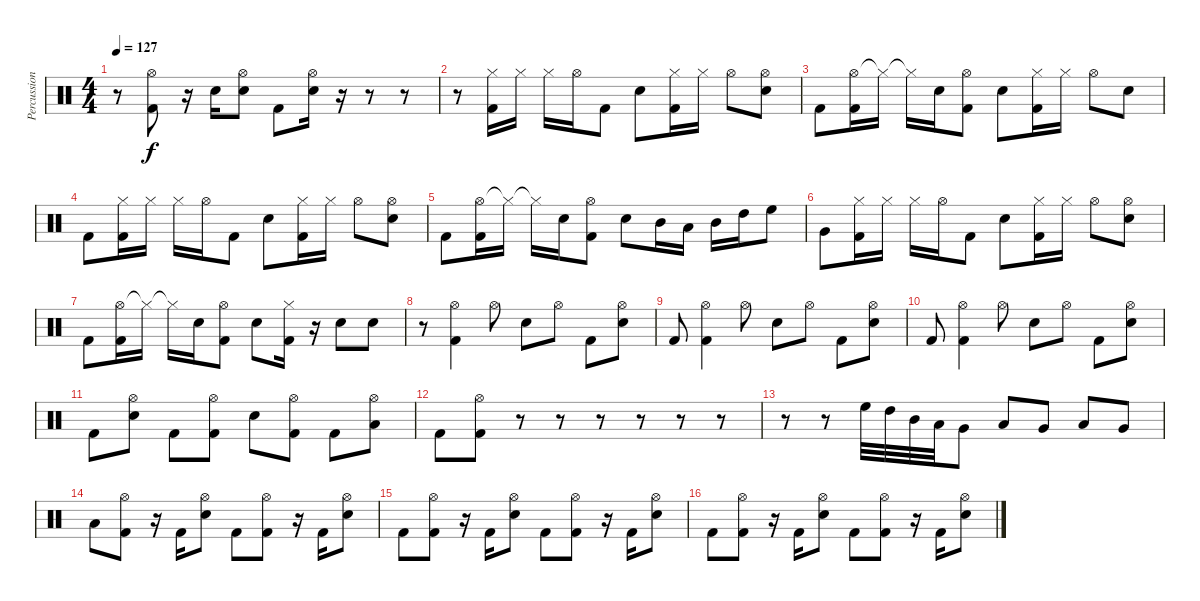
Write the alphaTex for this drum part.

\track ("Percussion" "Percussion") {instrument percussion}
\staff {score}
\articulation defaults
\ts (4 4)
\tempo 127
\clef neutral
\ks c
r.8{dy f} ("Hi-Hat (open)" "Kick (hit) 2").8 r.16 "Electric Snare (hit)".16 ("Hi-Hat (open)" "Electric Snare (hit)").8 "Kick (hit) 2".8 ("Hi-Hat (open)" "Electric Snare (hit)").16 r.16 r.8 r.8 |
r.8 ("Hi-Hat (closed)" "Kick (hit) 2").16 "Hi-Hat (closed)".16 "Hi-Hat (closed)".16 "Hi-Hat (open)".16 "Kick (hit) 2".8 "Electric Snare (hit)".8 ("Hi-Hat (closed)" "Kick (hit) 2").16 "Hi-Hat (closed)".16 "Hi-Hat (open)".8 ("Hi-Hat (open)" "Electric Snare (hit)").8 |
"Kick (hit) 2".8 ("Hi-Hat (open)" "Kick (hit) 2").16 "Hi-Hat (closed)"{t}.16 "Hi-Hat (closed)"{t}.16 "Electric Snare (hit)".16 ("Hi-Hat (open)" "Kick (hit) 2").8 "Electric Snare (hit)".8 ("Hi-Hat (closed)" "Kick (hit) 2").16 "Hi-Hat (closed)".16 "Hi-Hat (open)".8 "Electric Snare (hit)".8 |
"Kick (hit) 2".8 ("Hi-Hat (closed)" "Kick (hit) 2").16 "Hi-Hat (closed)".16 "Hi-Hat (closed)".16 "Hi-Hat (open)".16 "Kick (hit) 2".8 "Electric Snare (hit)".8 ("Hi-Hat (closed)" "Kick (hit) 2").16 "Hi-Hat (closed)".16 "Hi-Hat (open)".8 ("Hi-Hat (open)" "Electric Snare (hit)").8 |
"Kick (hit) 2".8 ("Hi-Hat (open)" "Kick (hit) 2").16 "Hi-Hat (closed)"{t}.16 "Hi-Hat (closed)"{t}.16 "Electric Snare (hit)".16 ("Hi-Hat (open)" "Kick (hit) 2").8 "Electric Snare (hit)".8 "Mid Tom (hit)".16 "Low Tom (hit)".16 "Mid Tom (hit)".16 "High Tom (hit)".16 "High Floor Tom (hit)".8 |
"Very Low Tom (hit)".8 ("Hi-Hat (closed)" "Kick (hit) 2").16 "Hi-Hat (closed)".16 "Hi-Hat (closed)".16 "Hi-Hat (open)".16 "Kick (hit) 2".8 "Electric Snare (hit)".8 ("Hi-Hat (closed)" "Kick (hit) 2").16 "Hi-Hat (closed)".16 "Hi-Hat (open)".8 ("Hi-Hat (open)" "Electric Snare (hit)").8 |
"Kick (hit) 2".8 ("Hi-Hat (open)" "Kick (hit) 2").16 "Hi-Hat (closed)"{t}.16 "Hi-Hat (closed)"{t}.16 "Electric Snare (hit)".16 ("Hi-Hat (open)" "Kick (hit) 2").8 "Electric Snare (hit)".8 ("Hi-Hat (closed)" "Kick (hit) 2").16 r.16 "Electric Snare (hit)".8 "Electric Snare (hit)".8 |
r.8 ("Hi-Hat (open)" "Kick (hit) 2").4 "Hi-Hat (open)".8 "Electric Snare (hit)".8 "Hi-Hat (open)".8 "Kick (hit) 2".8 ("Hi-Hat (open)" "Electric Snare (hit)").8 |
"Kick (hit) 2".8 ("Hi-Hat (open)" "Kick (hit) 2").4 "Hi-Hat (open)".8 "Electric Snare (hit)".8 "Hi-Hat (open)".8 "Kick (hit) 2".8 ("Hi-Hat (open)" "Electric Snare (hit)").8 |
"Kick (hit) 2".8 ("Hi-Hat (open)" "Kick (hit) 2").4 "Hi-Hat (open)".8 "Electric Snare (hit)".8 "Hi-Hat (open)".8 "Kick (hit) 2".8 ("Hi-Hat (open)" "Electric Snare (hit)").8 |
"Kick (hit) 2".8 ("Hi-Hat (open)" "Electric Snare (hit)").8 "Kick (hit) 2".8 ("Hi-Hat (open)" "Kick (hit) 2").8 "Electric Snare (hit)".8 ("Hi-Hat (open)" "Kick (hit) 2").8 "Kick (hit) 2".8 ("Hi-Hat (open)" "Low Tom (hit)").8 |
"Kick (hit) 2".8 ("Hi-Hat (open)" "Kick (hit) 2").8 r.8 r.8 r.8 r.8 r.8 r.8 |
r.8 r.8 "High Floor Tom (hit)".32 "High Tom (hit)".32 "Mid Tom (hit)".32 "Low Tom (hit)".32 "Very Low Tom (hit)".8 "Low Floor Tom (hit)".8 "Very Low Tom (hit)".8 "Low Floor Tom (hit)".8 "Very Low Tom (hit)".8 |
"Low Floor Tom (hit)".8 ("Hi-Hat (open)" "Kick (hit) 2").8 r.16 "Kick (hit) 2".16 ("Hi-Hat (open)" "Electric Snare (hit)").8 "Kick (hit) 2".8 ("Hi-Hat (open)" "Kick (hit) 2").8 r.16 "Kick (hit) 2".16 ("Hi-Hat (open)" "Electric Snare (hit)").8 |
"Kick (hit) 2".8 ("Hi-Hat (open)" "Kick (hit) 2").8 r.16 "Kick (hit) 2".16 ("Hi-Hat (open)" "Electric Snare (hit)").8 "Kick (hit) 2".8 ("Hi-Hat (open)" "Kick (hit) 2").8 r.16 "Kick (hit) 2".16 ("Hi-Hat (open)" "Electric Snare (hit)").8 |
"Kick (hit) 2".8 ("Hi-Hat (open)" "Kick (hit) 2").8 r.16 "Kick (hit) 2".16 ("Hi-Hat (open)" "Electric Snare (hit)").8 "Kick (hit) 2".8 ("Hi-Hat (open)" "Kick (hit) 2").8 r.16 "Kick (hit) 2".16 ("Hi-Hat (open)" "Electric Snare (hit)").8
